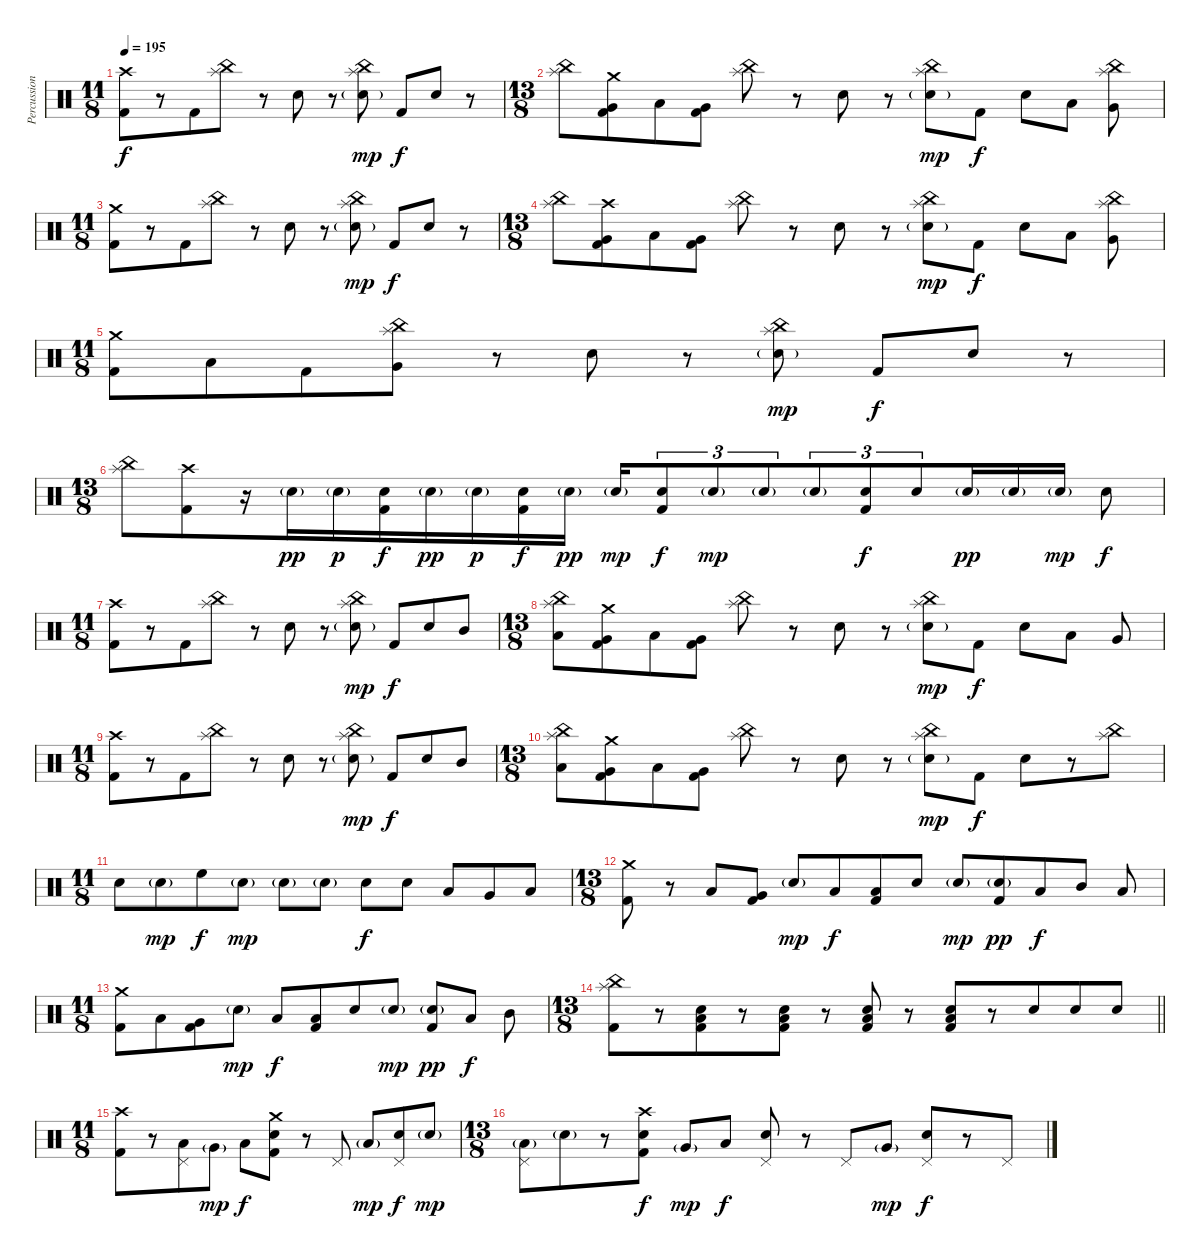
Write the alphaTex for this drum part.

\track ("Percussion" "Percussion") {instrument percussion bank 237}
\staff {score}
\articulation defaults
\ts (11 8)
\tempo 195
\clef neutral
\ks c
("Crash high (hit)" "Kick (hit) 2").8{dy f beam merge} r.8{beam merge} "Kick (hit) 2".8 ("Splash (hit)" "China (hit)").8 r.8 "Electric Snare (hit)".8 r.8{beam merge} ("Splash (hit)" "China (hit)" "Electric Snare (hit)"{g}).8{dy mp} "Kick (hit) 2".8{dy f} "Electric Snare (hit)".8{beam merge} r.8 |
\ts (13 8)
("Splash (hit)" "China (hit)").8 ("Crash medium (hit)" "Very Low Tom (hit)" "Kick (hit) 2").8{beam merge} "Low Tom (hit)".8{beam merge} ("Very Low Tom (hit)" "Kick (hit) 2").8 ("Splash (hit)" "China (hit)").8 r.8 "Electric Snare (hit)".8 r.8 ("Splash (hit)" "China (hit)" "Electric Snare (hit)"{g}).8{dy mp} "Kick (hit) 2".8{dy f} "Electric Snare (hit)".8{beam merge} "Low Tom (hit)".8 ("Splash (hit)" "China (hit)" "Very Low Tom (hit)").8 |
\ts (11 8)
("Crash medium (hit)" "Kick (hit) 2").8{beam merge} r.8{beam merge} "Kick (hit) 2".8 ("Splash (hit)" "China (hit)").8 r.8 "Electric Snare (hit)".8 r.8 ("Splash (hit)" "China (hit)" "Electric Snare (hit)"{g}).8{dy mp} "Kick (hit) 2".8{dy f} "Electric Snare (hit)".8{beam merge} r.8 |
\ts (13 8)
("Splash (hit)" "China (hit)").8 ("Crash high (hit)" "Very Low Tom (hit)" "Kick (hit) 2").8{beam merge} "Low Tom (hit)".8{beam merge} ("Very Low Tom (hit)" "Kick (hit) 2").8 ("Splash (hit)" "China (hit)").8 r.8 "Electric Snare (hit)".8 r.8 ("Splash (hit)" "China (hit)" "Electric Snare (hit)"{g}).8{dy mp} "Kick (hit) 2".8{dy f} "Electric Snare (hit)".8{beam merge} "Low Tom (hit)".8 ("Splash (hit)" "China (hit)" "Very Low Tom (hit)").8 |
\ts (11 8)
("Crash medium (hit)" "Kick (hit) 2").8{beam merge} "Low Tom (hit)".8{beam merge} "Kick (hit) 2".8 ("Splash (hit)" "China (hit)" "Very Low Tom (hit)").8 r.8 "Electric Snare (hit)".8 r.8 ("Splash (hit)" "China (hit)" "Electric Snare (hit)"{g}).8{dy mp} "Kick (hit) 2".8{dy f} "Electric Snare (hit)".8{beam merge} r.8 |
\ts (13 8)
("Splash (hit)" "China (hit)").8 ("Crash high (hit)" "Kick (hit) 2").8{beam merge} r.16{beam merge} "Electric Snare (hit)"{g}.16{dy pp} "Electric Snare (hit)"{g}.16{dy p} ("Electric Snare (hit)" "Kick (hit) 2").16{dy f beam merge} "Electric Snare (hit)"{g}.16{dy pp} "Electric Snare (hit)"{g}.16{dy p beam merge} ("Electric Snare (hit)" "Kick (hit) 2").16{dy f} "Electric Snare (hit)"{g}.16{dy pp} "Electric Snare (hit)"{g}.16{dy mp beam merge} ("Electric Snare (hit)" "Kick (hit) 2").8{tu (3 2) dy f beam merge} "Electric Snare (hit)"{g}.8{tu (3 2) dy mp} "Electric Snare (hit)"{g}.8{tu (3 2) beam merge} "Electric Snare (hit)"{g}.8{tu (3 2)} ("Electric Snare (hit)" "Kick (hit) 2").8{tu (3 2) dy f beam merge} "Electric Snare (hit)".8{tu (3 2) beam merge} "Electric Snare (hit)"{g}.16{dy pp beam merge} "Electric Snare (hit)"{g}.16 "Electric Snare (hit)"{g}.16{dy mp} "Electric Snare (hit)".8{dy f} |
\ts (11 8)
("Crash high (hit)" "Kick (hit) 2").8{beam merge} r.8{beam merge} "Kick (hit) 2".8 ("Splash (hit)" "China (hit)").8 r.8 "Electric Snare (hit)".8 r.8{beam merge} ("Splash (hit)" "China (hit)" "Electric Snare (hit)"{g}).8{dy mp} "Kick (hit) 2".8{dy f} "Electric Snare (hit)".8{beam merge} "Mid Tom (hit)".8 |
\ts (13 8)
("Splash (hit)" "China (hit)" "Low Tom (hit)").8 ("Crash medium (hit)" "Very Low Tom (hit)" "Kick (hit) 2").8{beam merge} "Low Tom (hit)".8{beam merge} ("Very Low Tom (hit)" "Kick (hit) 2").8 ("Splash (hit)" "China (hit)").8 r.8 "Electric Snare (hit)".8 r.8 ("Splash (hit)" "China (hit)" "Electric Snare (hit)"{g}).8{dy mp} "Kick (hit) 2".8{dy f} "Electric Snare (hit)".8{beam merge} "Low Tom (hit)".8 "Very Low Tom (hit)".8 |
\ts (11 8)
("Crash high (hit)" "Kick (hit) 2").8{beam merge} r.8{beam merge} "Kick (hit) 2".8 ("Splash (hit)" "China (hit)").8 r.8 "Electric Snare (hit)".8 r.8{beam merge} ("Splash (hit)" "China (hit)" "Electric Snare (hit)"{g}).8{dy mp} "Kick (hit) 2".8{dy f} "Electric Snare (hit)".8{beam merge} "Mid Tom (hit)".8 |
\ts (13 8)
("Splash (hit)" "China (hit)" "Low Tom (hit)").8 ("Crash medium (hit)" "Very Low Tom (hit)" "Kick (hit) 2").8{beam merge} "Low Tom (hit)".8{beam merge} ("Very Low Tom (hit)" "Kick (hit) 2").8 ("Splash (hit)" "China (hit)").8 r.8 "Electric Snare (hit)".8 r.8 ("Splash (hit)" "China (hit)" "Electric Snare (hit)"{g}).8{dy mp} "Kick (hit) 2".8{dy f} "Electric Snare (hit)".8{beam merge} r.8 ("Splash (hit)" "China (hit)").8 |
\ts (11 8)
"Electric Snare (hit)".8{beam merge} "Electric Snare (hit)"{g}.8{dy mp beam merge} "High Floor Tom (hit)".8{dy f} "Electric Snare (hit)"{g}.8{dy mp} "Electric Snare (hit)"{g}.8 "Electric Snare (hit)"{g}.8 "Electric Snare (hit)".8{dy f beam merge} "Electric Snare (hit)".8 "Low Tom (hit)".8 "Very Low Tom (hit)".8{beam merge} "Low Floor Tom (hit)".8 |
\ts (13 8)
("Crash medium (hit)" "Kick (hit) 2").8 r.8{beam merge} "Low Floor Tom (hit)".8{beam merge} ("Very Low Tom (hit)" "Kick (hit) 2").8 "Electric Snare (hit)"{g}.8{dy mp} "Low Floor Tom (hit)".8{dy f beam merge} ("Low Tom (hit)" "Kick (hit) 2").8{beam merge} "Electric Snare (hit)".8 "Electric Snare (hit)"{g}.8{dy mp} ("Electric Snare (hit)"{g} "Kick (hit) 2").8{dy pp beam merge} "Low Tom (hit)".8{dy f} "Mid Tom (hit)".8 "Low Tom (hit)".8 |
\ts (11 8)
("Crash medium (hit)" "Kick (hit) 2").8{beam merge} "Low Floor Tom (hit)".8{beam merge} ("Very Low Tom (hit)" "Kick (hit) 2").8 "Electric Snare (hit)"{g}.8{dy mp} "Low Floor Tom (hit)".8{dy f beam merge} ("Low Tom (hit)" "Kick (hit) 2").8{beam merge} "Electric Snare (hit)".8 "Electric Snare (hit)"{g}.8{dy mp} ("Electric Snare (hit)"{g} "Kick (hit) 2").8{dy pp beam merge} "Low Tom (hit)".8{dy f} "Mid Tom (hit)".8 |
\ts (13 8)
\barLineRight lightlight
("Splash (hit)" "China (hit)" "Kick (hit) 2").8{beam merge} r.8{beam merge} ("Electric Snare (hit)" "Low Floor Tom (hit)" "Kick (hit) 2").8{beam merge} r.8 ("Electric Snare (hit)" "Low Floor Tom (hit)" "Kick (hit) 2").8 r.8 ("Electric Snare (hit)" "Low Floor Tom (hit)" "Kick (hit) 2").8 r.8{beam merge} ("Electric Snare (hit)" "Low Floor Tom (hit)" "Kick (hit) 2").8{beam merge} r.8{beam merge} "Electric Snare (hit)".8{beam merge} "Electric Snare (hit)".8{beam merge} "Electric Snare (hit)".8 |
\ts (11 8)
\section ("" "")
("Crash high (hit)" "Kick (hit) 2").8{beam merge} r.8{beam merge} ("Pedal Hi-Hat (hit)" "Low Tom (hit)").8 "Very Low Tom (hit)"{g}.8{dy mp} "Low Floor Tom (hit)".8{dy f} ("Crash medium (hit)" "Electric Snare (hit)" "Kick (hit) 2").8 r.8 "Pedal Hi-Hat (hit)".8 "Low Floor Tom (hit)"{g}.8{dy mp} ("Pedal Hi-Hat (hit)" "Electric Snare (hit)").8{dy f beam merge} "Electric Snare (hit)"{g}.8{dy mp} |
\ts (13 8)
("Pedal Hi-Hat (hit)" "Low Floor Tom (hit)"{g}).8 "Electric Snare (hit)"{g}.8{beam merge} r.8{beam merge} ("Crash high (hit)" "Electric Snare (hit)" "Kick (hit) 2").8{dy f} "Very Low Tom (hit)"{g}.8{dy mp} "Low Floor Tom (hit)".8{dy f} ("Pedal Hi-Hat (hit)" "Electric Snare (hit)").8 r.8{beam merge} "Pedal Hi-Hat (hit)".8 "Very Low Tom (hit)"{g}.8{dy mp} ("Pedal Hi-Hat (hit)" "Electric Snare (hit)").8{dy f beam merge} r.8{beam merge} "Pedal Hi-Hat (hit)".8
